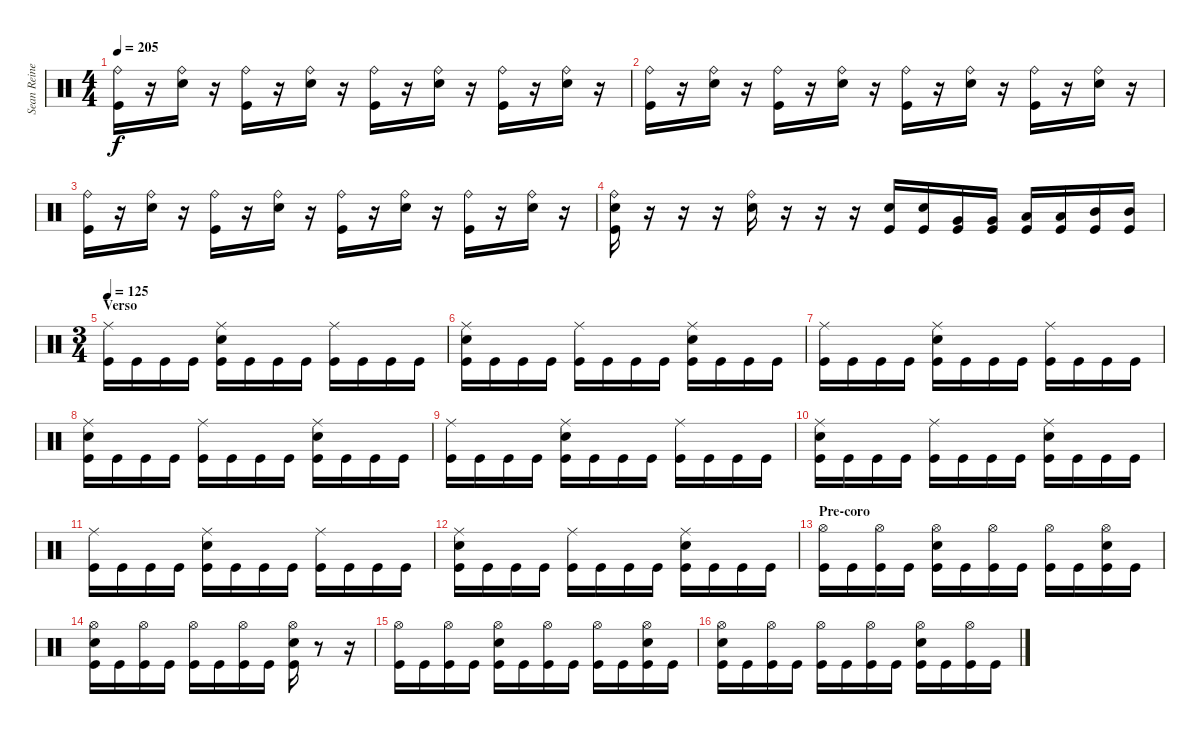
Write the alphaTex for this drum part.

\track ("Sean Reinert" "Sean Reine") {instrument percussion}
\staff {score}
\articulation defaults
\ts (4 4)
\tempo 205
\clef neutral
\ks c
("Ride (bell)" "Kick (hit)").16{dy f} r.16 ("Ride (bell)" "Snare (hit) 2").16 r.16 ("Ride (bell)" "Kick (hit)").16 r.16 ("Ride (bell)" "Snare (hit) 2").16 r.16 ("Ride (bell)" "Kick (hit)").16 r.16 ("Ride (bell)" "Snare (hit) 2").16 r.16 ("Ride (bell)" "Kick (hit)").16 r.16 ("Ride (bell)" "Snare (hit) 2").16 r.16 |
("Ride (bell)" "Kick (hit)").16 r.16 ("Ride (bell)" "Snare (hit) 2").16 r.16 ("Ride (bell)" "Kick (hit)").16 r.16 ("Ride (bell)" "Snare (hit) 2").16 r.16 ("Ride (bell)" "Kick (hit)").16 r.16 ("Ride (bell)" "Snare (hit) 2").16 r.16 ("Ride (bell)" "Kick (hit)").16 r.16 ("Ride (bell)" "Snare (hit) 2").16 r.16 |
("Ride (bell)" "Kick (hit)").16 r.16 ("Ride (bell)" "Snare (hit) 2").16 r.16 ("Ride (bell)" "Kick (hit)").16 r.16 ("Ride (bell)" "Snare (hit) 2").16 r.16 ("Ride (bell)" "Kick (hit)").16 r.16 ("Ride (bell)" "Snare (hit) 2").16 r.16 ("Ride (bell)" "Kick (hit)").16 r.16 ("Ride (bell)" "Snare (hit) 2").16 r.16 |
("Ride (bell)" "Snare (hit) 2" "Kick (hit)").16 r.16 r.16 r.16 ("Ride (bell)" "Snare (hit) 2").16 r.16 r.16 r.16 ("Snare (hit) 2" "Kick (hit)").16 ("Snare (hit) 2" "Kick (hit)").16 ("Very Low Tom (hit)" "Kick (hit)").16 ("Very Low Tom (hit)" "Kick (hit)").16 ("Low Tom (hit)" "Kick (hit)").16 ("Low Tom (hit)" "Kick (hit)").16 ("Mid Tom (hit)" "Kick (hit)").16 ("Mid Tom (hit)" "Kick (hit)").16 |
\ts (3 4)
\section ("" "Verso")
\tempo 125
("Ride (middle)" "Kick (hit)").16 "Kick (hit)".16 "Kick (hit)".16 "Kick (hit)".16 ("Ride (middle)" "Snare (hit) 2" "Kick (hit)").16 "Kick (hit)".16 "Kick (hit)".16 "Kick (hit)".16 ("Ride (middle)" "Kick (hit)").16 "Kick (hit)".16 "Kick (hit)".16 "Kick (hit)".16 |
("Ride (middle)" "Snare (hit) 2" "Kick (hit)").16 "Kick (hit)".16 "Kick (hit)".16 "Kick (hit)".16 ("Ride (middle)" "Kick (hit)").16 "Kick (hit)".16 "Kick (hit)".16 "Kick (hit)".16 ("Ride (middle)" "Snare (hit) 2" "Kick (hit)").16 "Kick (hit)".16 "Kick (hit)".16 "Kick (hit)".16 |
("Ride (middle)" "Kick (hit)").16 "Kick (hit)".16 "Kick (hit)".16 "Kick (hit)".16 ("Ride (middle)" "Snare (hit) 2" "Kick (hit)").16 "Kick (hit)".16 "Kick (hit)".16 "Kick (hit)".16 ("Ride (middle)" "Kick (hit)").16 "Kick (hit)".16 "Kick (hit)".16 "Kick (hit)".16 |
("Ride (middle)" "Snare (hit) 2" "Kick (hit)").16 "Kick (hit)".16 "Kick (hit)".16 "Kick (hit)".16 ("Ride (middle)" "Kick (hit)").16 "Kick (hit)".16 "Kick (hit)".16 "Kick (hit)".16 ("Ride (middle)" "Snare (hit) 2" "Kick (hit)").16 "Kick (hit)".16 "Kick (hit)".16 "Kick (hit)".16 |
("Ride (middle)" "Kick (hit)").16 "Kick (hit)".16 "Kick (hit)".16 "Kick (hit)".16 ("Ride (middle)" "Snare (hit) 2" "Kick (hit)").16 "Kick (hit)".16 "Kick (hit)".16 "Kick (hit)".16 ("Ride (middle)" "Kick (hit)").16 "Kick (hit)".16 "Kick (hit)".16 "Kick (hit)".16 |
("Ride (middle)" "Snare (hit) 2" "Kick (hit)").16 "Kick (hit)".16 "Kick (hit)".16 "Kick (hit)".16 ("Ride (middle)" "Kick (hit)").16 "Kick (hit)".16 "Kick (hit)".16 "Kick (hit)".16 ("Ride (middle)" "Snare (hit) 2" "Kick (hit)").16 "Kick (hit)".16 "Kick (hit)".16 "Kick (hit)".16 |
("Ride (middle)" "Kick (hit)").16 "Kick (hit)".16 "Kick (hit)".16 "Kick (hit)".16 ("Ride (middle)" "Snare (hit) 2" "Kick (hit)").16 "Kick (hit)".16 "Kick (hit)".16 "Kick (hit)".16 ("Ride (middle)" "Kick (hit)").16 "Kick (hit)".16 "Kick (hit)".16 "Kick (hit)".16 |
("Ride (middle)" "Snare (hit) 2" "Kick (hit)").16 "Kick (hit)".16 "Kick (hit)".16 "Kick (hit)".16 ("Ride (middle)" "Kick (hit)").16 "Kick (hit)".16 "Kick (hit)".16 "Kick (hit)".16 ("Ride (middle)" "Snare (hit) 2" "Kick (hit)").16 "Kick (hit)".16 "Kick (hit)".16 "Kick (hit)".16 |
\section ("" "Pre-coro")
("Hi-Hat (open)" "Kick (hit)").16 "Kick (hit)".16 ("Hi-Hat (open)" "Kick (hit)").16 "Kick (hit)".16 ("Hi-Hat (open)" "Snare (hit) 2" "Kick (hit)").16 "Kick (hit)".16 ("Hi-Hat (open)" "Kick (hit)").16 "Kick (hit)".16 ("Hi-Hat (open)" "Kick (hit)").16 "Kick (hit)".16 ("Hi-Hat (open)" "Snare (hit) 2" "Kick (hit)").16 "Kick (hit)".16 |
("Hi-Hat (open)" "Snare (hit) 2" "Kick (hit)").16 "Kick (hit)".16 ("Hi-Hat (open)" "Kick (hit)").16 "Kick (hit)".16 ("Hi-Hat (open)" "Kick (hit)").16 "Kick (hit)".16 ("Hi-Hat (open)" "Kick (hit)").16 "Kick (hit)".16 ("Hi-Hat (open)" "Snare (hit) 2" "Kick (hit)").16 r.8 r.16 |
("Hi-Hat (open)" "Kick (hit)").16 "Kick (hit)".16 ("Hi-Hat (open)" "Kick (hit)").16 "Kick (hit)".16 ("Hi-Hat (open)" "Snare (hit) 2" "Kick (hit)").16 "Kick (hit)".16 ("Hi-Hat (open)" "Kick (hit)").16 "Kick (hit)".16 ("Hi-Hat (open)" "Kick (hit)").16 "Kick (hit)".16 ("Hi-Hat (open)" "Snare (hit) 2" "Kick (hit)").16 "Kick (hit)".16 |
("Hi-Hat (open)" "Snare (hit) 2" "Kick (hit)").16 "Kick (hit)".16 ("Hi-Hat (open)" "Kick (hit)").16 "Kick (hit)".16 ("Hi-Hat (open)" "Kick (hit)").16 "Kick (hit)".16 ("Hi-Hat (open)" "Kick (hit)").16 "Kick (hit)".16 ("Hi-Hat (open)" "Snare (hit) 2" "Kick (hit)").16 "Kick (hit)".16 ("Hi-Hat (open)" "Kick (hit)").16 "Kick (hit)".16
